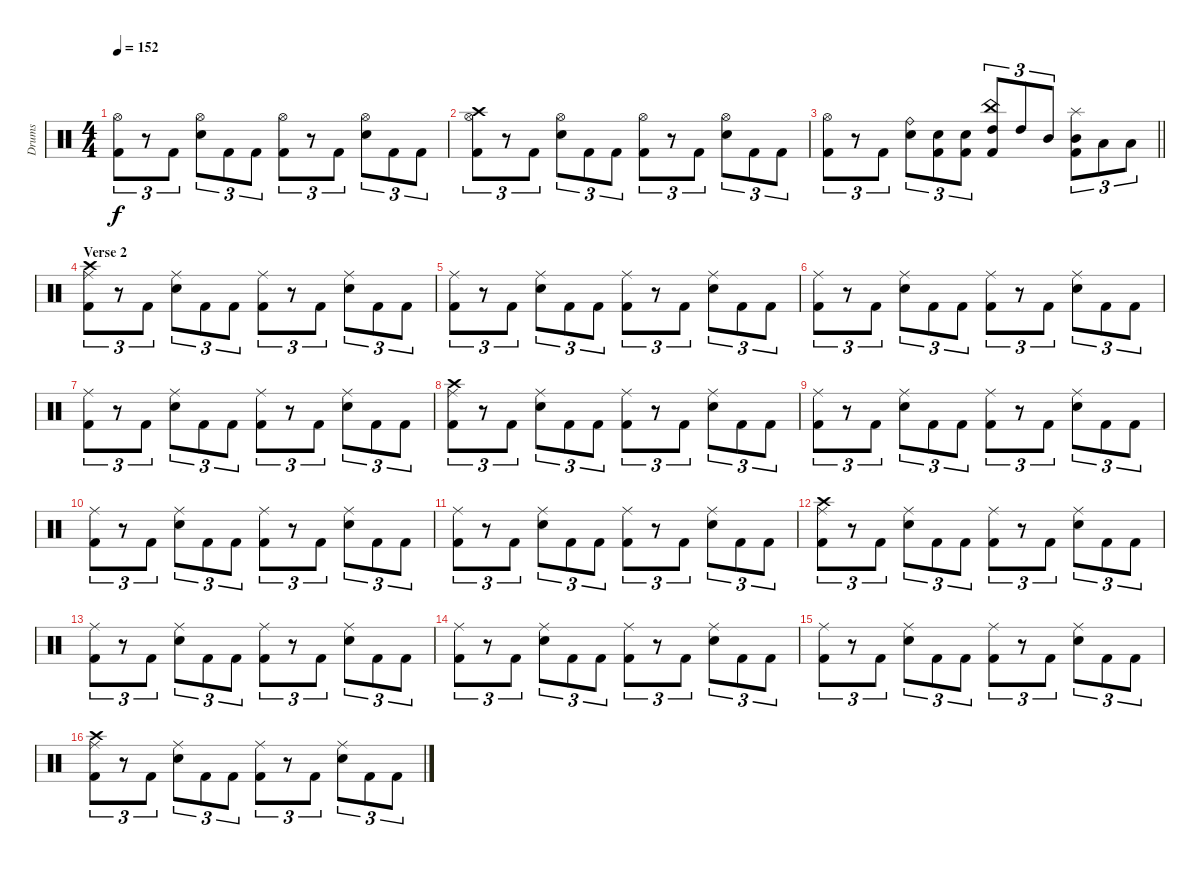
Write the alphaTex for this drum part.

\track ("Drums" "Drums") {instrument percussion}
\staff {score}
\articulation defaults
\ts (4 4)
\tempo 152
\clef neutral
\ks c
("Hi-Hat (open)" "Kick (hit) 2").8{tu (3 2) dy f} r.8{tu (3 2)} "Kick (hit) 2".8{tu (3 2)} ("Hi-Hat (open)" "Snare (hit) 2").8{tu (3 2)} "Kick (hit) 2".8{tu (3 2)} "Kick (hit) 2".8{tu (3 2)} ("Hi-Hat (open)" "Kick (hit) 2").8{tu (3 2)} r.8{tu (3 2)} "Kick (hit) 2".8{tu (3 2)} ("Hi-Hat (open)" "Snare (hit) 2").8{tu (3 2)} "Kick (hit) 2".8{tu (3 2)} "Kick (hit) 2".8{tu (3 2)} |
("Crash high (hit)" "Hi-Hat (open)" "Kick (hit) 2").8{tu (3 2)} r.8{tu (3 2)} "Kick (hit) 2".8{tu (3 2)} ("Hi-Hat (open)" "Snare (hit) 2").8{tu (3 2)} "Kick (hit) 2".8{tu (3 2)} "Kick (hit) 2".8{tu (3 2)} ("Hi-Hat (open)" "Kick (hit) 2").8{tu (3 2)} r.8{tu (3 2)} "Kick (hit) 2".8{tu (3 2)} ("Hi-Hat (open)" "Snare (hit) 2").8{tu (3 2)} "Kick (hit) 2".8{tu (3 2)} "Kick (hit) 2".8{tu (3 2)} |
\barLineRight lightlight
("Hi-Hat (open)" "Kick (hit) 2").8{tu (3 2)} r.8{tu (3 2)} "Kick (hit) 2".8{tu (3 2)} ("Ride (bell)" "Snare (hit) 2").8{tu (3 2)} ("Snare (hit) 2" "Kick (hit) 2").8{tu (3 2)} ("Snare (hit) 2" "Kick (hit) 2").8{tu (3 2)} ("China (hit)" "High Tom (hit)" "Kick (hit) 2").8{tu (3 2)} "High Tom (hit)".8{tu (3 2)} "Mid Tom (hit)".8{tu (3 2)} ("Splash (hit)" "Mid Tom (hit)" "Kick (hit) 2").8{tu (3 2)} "Low Tom (hit)".8{tu (3 2)} "Low Tom (hit)".8{tu (3 2)} |
\section ("" "Verse 2")
("Crash high (hit)" "Ride (middle)" "Kick (hit) 2").8{tu (3 2)} r.8{tu (3 2)} "Kick (hit) 2".8{tu (3 2)} ("Ride (middle)" "Snare (hit) 2").8{tu (3 2)} "Kick (hit) 2".8{tu (3 2)} "Kick (hit) 2".8{tu (3 2)} ("Ride (middle)" "Kick (hit) 2").8{tu (3 2)} r.8{tu (3 2)} "Kick (hit) 2".8{tu (3 2)} ("Ride (middle)" "Snare (hit) 2").8{tu (3 2)} "Kick (hit) 2".8{tu (3 2)} "Kick (hit) 2".8{tu (3 2)} |
("Ride (middle)" "Kick (hit) 2").8{tu (3 2)} r.8{tu (3 2)} "Kick (hit) 2".8{tu (3 2)} ("Ride (middle)" "Snare (hit) 2").8{tu (3 2)} "Kick (hit) 2".8{tu (3 2)} "Kick (hit) 2".8{tu (3 2)} ("Ride (middle)" "Kick (hit) 2").8{tu (3 2)} r.8{tu (3 2)} "Kick (hit) 2".8{tu (3 2)} ("Ride (middle)" "Snare (hit) 2").8{tu (3 2)} "Kick (hit) 2".8{tu (3 2)} "Kick (hit) 2".8{tu (3 2)} |
("Ride (middle)" "Kick (hit) 2").8{tu (3 2)} r.8{tu (3 2)} "Kick (hit) 2".8{tu (3 2)} ("Ride (middle)" "Snare (hit) 2").8{tu (3 2)} "Kick (hit) 2".8{tu (3 2)} "Kick (hit) 2".8{tu (3 2)} ("Ride (middle)" "Kick (hit) 2").8{tu (3 2)} r.8{tu (3 2)} "Kick (hit) 2".8{tu (3 2)} ("Ride (middle)" "Snare (hit) 2").8{tu (3 2)} "Kick (hit) 2".8{tu (3 2)} "Kick (hit) 2".8{tu (3 2)} |
("Ride (middle)" "Kick (hit) 2").8{tu (3 2)} r.8{tu (3 2)} "Kick (hit) 2".8{tu (3 2)} ("Ride (middle)" "Snare (hit) 2").8{tu (3 2)} "Kick (hit) 2".8{tu (3 2)} "Kick (hit) 2".8{tu (3 2)} ("Ride (middle)" "Kick (hit) 2").8{tu (3 2)} r.8{tu (3 2)} "Kick (hit) 2".8{tu (3 2)} ("Ride (middle)" "Snare (hit) 2").8{tu (3 2)} "Kick (hit) 2".8{tu (3 2)} "Kick (hit) 2".8{tu (3 2)} |
("Crash high (hit)" "Ride (middle)" "Kick (hit) 2").8{tu (3 2)} r.8{tu (3 2)} "Kick (hit) 2".8{tu (3 2)} ("Ride (middle)" "Snare (hit) 2").8{tu (3 2)} "Kick (hit) 2".8{tu (3 2)} "Kick (hit) 2".8{tu (3 2)} ("Ride (middle)" "Kick (hit) 2").8{tu (3 2)} r.8{tu (3 2)} "Kick (hit) 2".8{tu (3 2)} ("Ride (middle)" "Snare (hit) 2").8{tu (3 2)} "Kick (hit) 2".8{tu (3 2)} "Kick (hit) 2".8{tu (3 2)} |
("Ride (middle)" "Kick (hit) 2").8{tu (3 2)} r.8{tu (3 2)} "Kick (hit) 2".8{tu (3 2)} ("Ride (middle)" "Snare (hit) 2").8{tu (3 2)} "Kick (hit) 2".8{tu (3 2)} "Kick (hit) 2".8{tu (3 2)} ("Ride (middle)" "Kick (hit) 2").8{tu (3 2)} r.8{tu (3 2)} "Kick (hit) 2".8{tu (3 2)} ("Ride (middle)" "Snare (hit) 2").8{tu (3 2)} "Kick (hit) 2".8{tu (3 2)} "Kick (hit) 2".8{tu (3 2)} |
("Ride (middle)" "Kick (hit) 2").8{tu (3 2)} r.8{tu (3 2)} "Kick (hit) 2".8{tu (3 2)} ("Ride (middle)" "Snare (hit) 2").8{tu (3 2)} "Kick (hit) 2".8{tu (3 2)} "Kick (hit) 2".8{tu (3 2)} ("Ride (middle)" "Kick (hit) 2").8{tu (3 2)} r.8{tu (3 2)} "Kick (hit) 2".8{tu (3 2)} ("Ride (middle)" "Snare (hit) 2").8{tu (3 2)} "Kick (hit) 2".8{tu (3 2)} "Kick (hit) 2".8{tu (3 2)} |
("Ride (middle)" "Kick (hit) 2").8{tu (3 2)} r.8{tu (3 2)} "Kick (hit) 2".8{tu (3 2)} ("Ride (middle)" "Snare (hit) 2").8{tu (3 2)} "Kick (hit) 2".8{tu (3 2)} "Kick (hit) 2".8{tu (3 2)} ("Ride (middle)" "Kick (hit) 2").8{tu (3 2)} r.8{tu (3 2)} "Kick (hit) 2".8{tu (3 2)} ("Ride (middle)" "Snare (hit) 2").8{tu (3 2)} "Kick (hit) 2".8{tu (3 2)} "Kick (hit) 2".8{tu (3 2)} |
("Crash high (hit)" "Ride (middle)" "Kick (hit) 2").8{tu (3 2)} r.8{tu (3 2)} "Kick (hit) 2".8{tu (3 2)} ("Ride (middle)" "Snare (hit) 2").8{tu (3 2)} "Kick (hit) 2".8{tu (3 2)} "Kick (hit) 2".8{tu (3 2)} ("Ride (middle)" "Kick (hit) 2").8{tu (3 2)} r.8{tu (3 2)} "Kick (hit) 2".8{tu (3 2)} ("Ride (middle)" "Snare (hit) 2").8{tu (3 2)} "Kick (hit) 2".8{tu (3 2)} "Kick (hit) 2".8{tu (3 2)} |
("Ride (middle)" "Kick (hit) 2").8{tu (3 2)} r.8{tu (3 2)} "Kick (hit) 2".8{tu (3 2)} ("Ride (middle)" "Snare (hit) 2").8{tu (3 2)} "Kick (hit) 2".8{tu (3 2)} "Kick (hit) 2".8{tu (3 2)} ("Ride (middle)" "Kick (hit) 2").8{tu (3 2)} r.8{tu (3 2)} "Kick (hit) 2".8{tu (3 2)} ("Ride (middle)" "Snare (hit) 2").8{tu (3 2)} "Kick (hit) 2".8{tu (3 2)} "Kick (hit) 2".8{tu (3 2)} |
("Ride (middle)" "Kick (hit) 2").8{tu (3 2)} r.8{tu (3 2)} "Kick (hit) 2".8{tu (3 2)} ("Ride (middle)" "Snare (hit) 2").8{tu (3 2)} "Kick (hit) 2".8{tu (3 2)} "Kick (hit) 2".8{tu (3 2)} ("Ride (middle)" "Kick (hit) 2").8{tu (3 2)} r.8{tu (3 2)} "Kick (hit) 2".8{tu (3 2)} ("Ride (middle)" "Snare (hit) 2").8{tu (3 2)} "Kick (hit) 2".8{tu (3 2)} "Kick (hit) 2".8{tu (3 2)} |
("Ride (middle)" "Kick (hit) 2").8{tu (3 2)} r.8{tu (3 2)} "Kick (hit) 2".8{tu (3 2)} ("Ride (middle)" "Snare (hit) 2").8{tu (3 2)} "Kick (hit) 2".8{tu (3 2)} "Kick (hit) 2".8{tu (3 2)} ("Ride (middle)" "Kick (hit) 2").8{tu (3 2)} r.8{tu (3 2)} "Kick (hit) 2".8{tu (3 2)} ("Ride (middle)" "Snare (hit) 2").8{tu (3 2)} "Kick (hit) 2".8{tu (3 2)} "Kick (hit) 2".8{tu (3 2)} |
("Crash high (hit)" "Ride (middle)" "Kick (hit) 2").8{tu (3 2)} r.8{tu (3 2)} "Kick (hit) 2".8{tu (3 2)} ("Ride (middle)" "Snare (hit) 2").8{tu (3 2)} "Kick (hit) 2".8{tu (3 2)} "Kick (hit) 2".8{tu (3 2)} ("Ride (middle)" "Kick (hit) 2").8{tu (3 2)} r.8{tu (3 2)} "Kick (hit) 2".8{tu (3 2)} ("Ride (middle)" "Snare (hit) 2").8{tu (3 2)} "Kick (hit) 2".8{tu (3 2)} "Kick (hit) 2".8{tu (3 2)}
